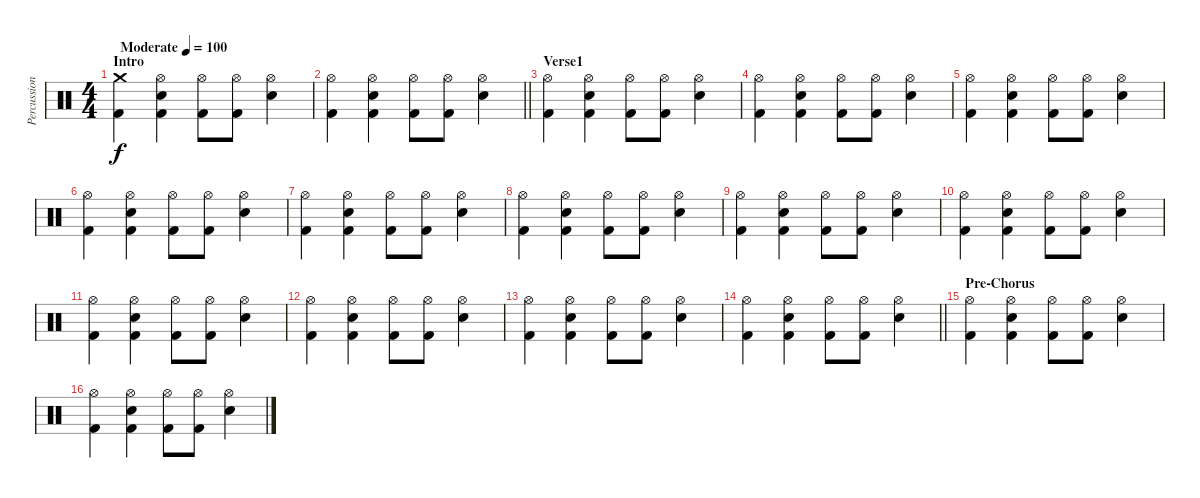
\track ("Percussion" "Percussion") {instrument percussion}
\staff {score}
\articulation defaults
\ts (4 4)
\section ("" "Intro")
\tempo (100 "Moderate")
\clef neutral
\ks c
("Kick (hit) 2" "Crash medium (hit)").4{dy f} ("Kick (hit) 2" "Snare (hit) 2" "Hi-Hat (open)").4 ("Kick (hit) 2" "Hi-Hat (open)").8 ("Kick (hit) 2" "Hi-Hat (open)").8 ("Snare (hit) 2" "Hi-Hat (open)").4 |
\barLineRight lightlight
("Kick (hit) 2" "Hi-Hat (open)").4 ("Kick (hit) 2" "Snare (hit) 2" "Hi-Hat (open)").4 ("Kick (hit) 2" "Hi-Hat (open)").8 ("Kick (hit) 2" "Hi-Hat (open)").8 ("Snare (hit) 2" "Hi-Hat (open)").4 |
\section ("" "Verse1")
("Kick (hit) 2" "Hi-Hat (open)").4 ("Kick (hit) 2" "Snare (hit) 2" "Hi-Hat (open)").4 ("Kick (hit) 2" "Hi-Hat (open)").8 ("Kick (hit) 2" "Hi-Hat (open)").8 ("Snare (hit) 2" "Hi-Hat (open)").4 |
("Kick (hit) 2" "Hi-Hat (open)").4 ("Kick (hit) 2" "Snare (hit) 2" "Hi-Hat (open)").4 ("Kick (hit) 2" "Hi-Hat (open)").8 ("Kick (hit) 2" "Hi-Hat (open)").8 ("Snare (hit) 2" "Hi-Hat (open)").4 |
("Kick (hit) 2" "Hi-Hat (open)").4 ("Kick (hit) 2" "Snare (hit) 2" "Hi-Hat (open)").4 ("Kick (hit) 2" "Hi-Hat (open)").8 ("Kick (hit) 2" "Hi-Hat (open)").8 ("Snare (hit) 2" "Hi-Hat (open)").4 |
("Kick (hit) 2" "Hi-Hat (open)").4 ("Kick (hit) 2" "Snare (hit) 2" "Hi-Hat (open)").4 ("Kick (hit) 2" "Hi-Hat (open)").8 ("Kick (hit) 2" "Hi-Hat (open)").8 ("Snare (hit) 2" "Hi-Hat (open)").4 |
("Kick (hit) 2" "Hi-Hat (open)").4 ("Kick (hit) 2" "Snare (hit) 2" "Hi-Hat (open)").4 ("Kick (hit) 2" "Hi-Hat (open)").8 ("Kick (hit) 2" "Hi-Hat (open)").8 ("Snare (hit) 2" "Hi-Hat (open)").4 |
("Kick (hit) 2" "Hi-Hat (open)").4 ("Kick (hit) 2" "Snare (hit) 2" "Hi-Hat (open)").4 ("Kick (hit) 2" "Hi-Hat (open)").8 ("Kick (hit) 2" "Hi-Hat (open)").8 ("Snare (hit) 2" "Hi-Hat (open)").4 |
("Kick (hit) 2" "Hi-Hat (open)").4 ("Kick (hit) 2" "Snare (hit) 2" "Hi-Hat (open)").4 ("Kick (hit) 2" "Hi-Hat (open)").8 ("Kick (hit) 2" "Hi-Hat (open)").8 ("Snare (hit) 2" "Hi-Hat (open)").4 |
("Kick (hit) 2" "Hi-Hat (open)").4 ("Kick (hit) 2" "Snare (hit) 2" "Hi-Hat (open)").4 ("Kick (hit) 2" "Hi-Hat (open)").8 ("Kick (hit) 2" "Hi-Hat (open)").8 ("Snare (hit) 2" "Hi-Hat (open)").4 |
("Kick (hit) 2" "Hi-Hat (open)").4 ("Kick (hit) 2" "Snare (hit) 2" "Hi-Hat (open)").4 ("Kick (hit) 2" "Hi-Hat (open)").8 ("Kick (hit) 2" "Hi-Hat (open)").8 ("Snare (hit) 2" "Hi-Hat (open)").4 |
("Kick (hit) 2" "Hi-Hat (open)").4 ("Kick (hit) 2" "Snare (hit) 2" "Hi-Hat (open)").4 ("Kick (hit) 2" "Hi-Hat (open)").8 ("Kick (hit) 2" "Hi-Hat (open)").8 ("Snare (hit) 2" "Hi-Hat (open)").4 |
("Kick (hit) 2" "Hi-Hat (open)").4 ("Kick (hit) 2" "Snare (hit) 2" "Hi-Hat (open)").4 ("Kick (hit) 2" "Hi-Hat (open)").8 ("Kick (hit) 2" "Hi-Hat (open)").8 ("Snare (hit) 2" "Hi-Hat (open)").4 |
\barLineRight lightlight
("Kick (hit) 2" "Hi-Hat (open)").4 ("Kick (hit) 2" "Snare (hit) 2" "Hi-Hat (open)").4 ("Kick (hit) 2" "Hi-Hat (open)").8 ("Kick (hit) 2" "Hi-Hat (open)").8 ("Snare (hit) 2" "Hi-Hat (open)").4 |
\section ("" "Pre-Chorus")
("Kick (hit) 2" "Hi-Hat (open)").4 ("Kick (hit) 2" "Snare (hit) 2" "Hi-Hat (open)").4 ("Kick (hit) 2" "Hi-Hat (open)").8 ("Kick (hit) 2" "Hi-Hat (open)").8 ("Snare (hit) 2" "Hi-Hat (open)").4 |
("Kick (hit) 2" "Hi-Hat (open)").4 ("Kick (hit) 2" "Snare (hit) 2" "Hi-Hat (open)").4 ("Kick (hit) 2" "Hi-Hat (open)").8 ("Kick (hit) 2" "Hi-Hat (open)").8 ("Snare (hit) 2" "Hi-Hat (open)").4
